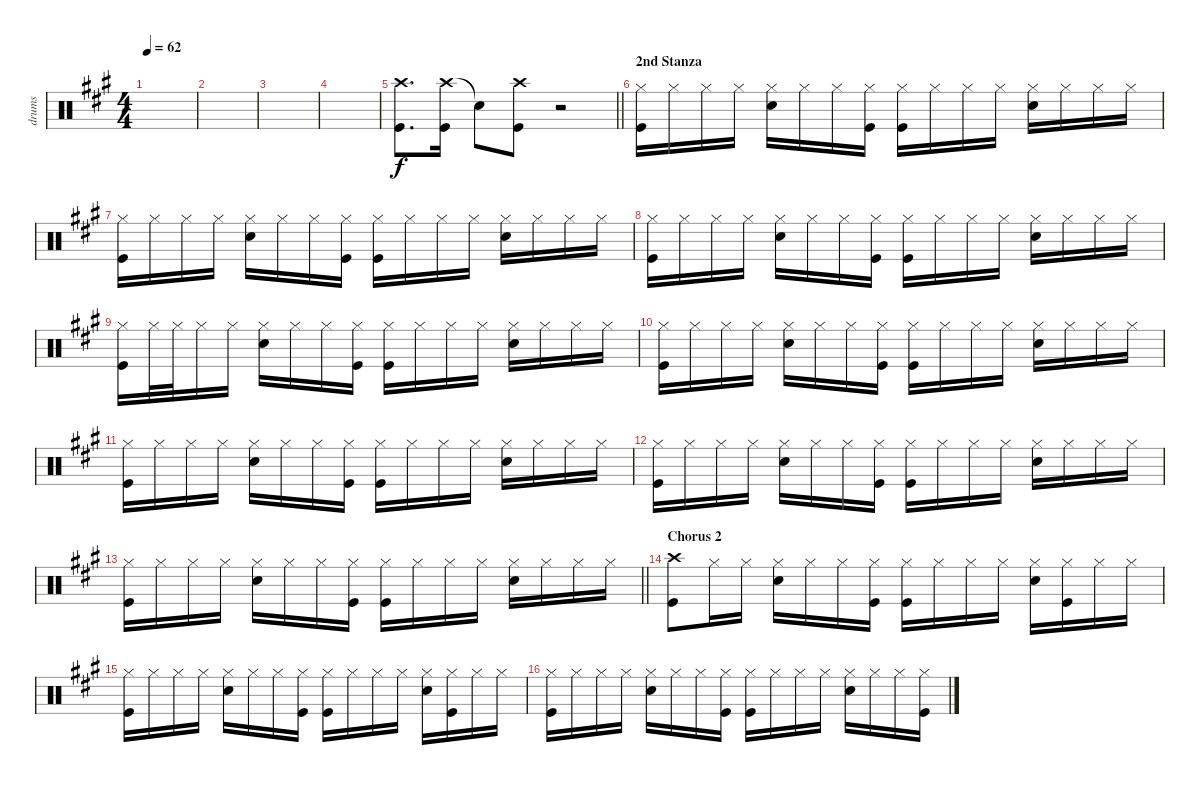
\track ("drums" "drums") {instrument percussion}
\staff {score}
\articulation defaults
\ts (4 4)
\tempo 62
\clef neutral
\ks a
|
|
|
|
\barLineRight lightlight
("Crash high (hit)" "Kick (hit)").8{d} ("Crash high (hit)" "Kick (hit)").16 "Snare (hit)"{t}.8 ("Crash high (hit)" "Kick (hit)").8 r.2 |
\section ("" "2nd Stanza")
("Hi-Hat (closed)" "Kick (hit)").16 "Hi-Hat (closed)".16 "Hi-Hat (closed)".16 "Hi-Hat (closed)".16 ("Electric Snare (hit)" "Hi-Hat (closed)").16 "Hi-Hat (closed)".16 "Hi-Hat (closed)".16 ("Hi-Hat (closed)" "Kick (hit)").16 ("Hi-Hat (closed)" "Kick (hit)").16 "Hi-Hat (closed)".16 "Hi-Hat (closed)".16 "Hi-Hat (closed)".16 ("Electric Snare (hit)" "Hi-Hat (closed)").16 "Hi-Hat (closed)".16 "Hi-Hat (closed)".16 "Hi-Hat (closed)".16 |
("Hi-Hat (closed)" "Kick (hit)").16 "Hi-Hat (closed)".16 "Hi-Hat (closed)".16 "Hi-Hat (closed)".16 ("Electric Snare (hit)" "Hi-Hat (closed)").16 "Hi-Hat (closed)".16 "Hi-Hat (closed)".16 ("Hi-Hat (closed)" "Kick (hit)").16 ("Hi-Hat (closed)" "Kick (hit)").16 "Hi-Hat (closed)".16 "Hi-Hat (closed)".16 "Hi-Hat (closed)".16 ("Electric Snare (hit)" "Hi-Hat (closed)").16 "Hi-Hat (closed)".16 "Hi-Hat (closed)".16 "Hi-Hat (closed)".16 |
("Hi-Hat (closed)" "Kick (hit)").16 "Hi-Hat (closed)".16 "Hi-Hat (closed)".16 "Hi-Hat (closed)".16 ("Electric Snare (hit)" "Hi-Hat (closed)").16 "Hi-Hat (closed)".16 "Hi-Hat (closed)".16 ("Hi-Hat (closed)" "Kick (hit)").16 ("Hi-Hat (closed)" "Kick (hit)").16 "Hi-Hat (closed)".16 "Hi-Hat (closed)".16 "Hi-Hat (closed)".16 ("Electric Snare (hit)" "Hi-Hat (closed)").16 "Hi-Hat (closed)".16 "Hi-Hat (closed)".16 "Hi-Hat (closed)".16 |
("Hi-Hat (closed)" "Kick (hit)").16 "Hi-Hat (closed)".32 "Hi-Hat (closed)".32 "Hi-Hat (closed)".16 "Hi-Hat (closed)".16 ("Electric Snare (hit)" "Hi-Hat (closed)").16 "Hi-Hat (closed)".16 "Hi-Hat (closed)".16 ("Hi-Hat (closed)" "Kick (hit)").16 ("Hi-Hat (closed)" "Kick (hit)").16 "Hi-Hat (closed)".16 "Hi-Hat (closed)".16 "Hi-Hat (closed)".16 ("Electric Snare (hit)" "Hi-Hat (closed)").16 "Hi-Hat (closed)".16 "Hi-Hat (closed)".16 "Hi-Hat (closed)".16 |
("Hi-Hat (closed)" "Kick (hit)").16 "Hi-Hat (closed)".16 "Hi-Hat (closed)".16 "Hi-Hat (closed)".16 ("Electric Snare (hit)" "Hi-Hat (closed)").16 "Hi-Hat (closed)".16 "Hi-Hat (closed)".16 ("Hi-Hat (closed)" "Kick (hit)").16 ("Hi-Hat (closed)" "Kick (hit)").16 "Hi-Hat (closed)".16 "Hi-Hat (closed)".16 "Hi-Hat (closed)".16 ("Electric Snare (hit)" "Hi-Hat (closed)").16 "Hi-Hat (closed)".16 "Hi-Hat (closed)".16 "Hi-Hat (closed)".16 |
("Hi-Hat (closed)" "Kick (hit)").16 "Hi-Hat (closed)".16 "Hi-Hat (closed)".16 "Hi-Hat (closed)".16 ("Electric Snare (hit)" "Hi-Hat (closed)").16 "Hi-Hat (closed)".16 "Hi-Hat (closed)".16 ("Hi-Hat (closed)" "Kick (hit)").16 ("Hi-Hat (closed)" "Kick (hit)").16 "Hi-Hat (closed)".16 "Hi-Hat (closed)".16 "Hi-Hat (closed)".16 ("Electric Snare (hit)" "Hi-Hat (closed)").16 "Hi-Hat (closed)".16 "Hi-Hat (closed)".16 "Hi-Hat (closed)".16 |
("Hi-Hat (closed)" "Kick (hit)").16 "Hi-Hat (closed)".16 "Hi-Hat (closed)".16 "Hi-Hat (closed)".16 ("Electric Snare (hit)" "Hi-Hat (closed)").16 "Hi-Hat (closed)".16 "Hi-Hat (closed)".16 ("Hi-Hat (closed)" "Kick (hit)").16 ("Hi-Hat (closed)" "Kick (hit)").16 "Hi-Hat (closed)".16 "Hi-Hat (closed)".16 "Hi-Hat (closed)".16 ("Electric Snare (hit)" "Hi-Hat (closed)").16 "Hi-Hat (closed)".16 "Hi-Hat (closed)".16 "Hi-Hat (closed)".16 |
\barLineRight lightlight
("Hi-Hat (closed)" "Kick (hit)").16 "Hi-Hat (closed)".16 "Hi-Hat (closed)".16 "Hi-Hat (closed)".16 ("Electric Snare (hit)" "Hi-Hat (closed)").16 "Hi-Hat (closed)".16 "Hi-Hat (closed)".16 ("Hi-Hat (closed)" "Kick (hit)").16 ("Hi-Hat (closed)" "Kick (hit)").16 "Hi-Hat (closed)".16 "Hi-Hat (closed)".16 "Hi-Hat (closed)".16 ("Electric Snare (hit)" "Hi-Hat (closed)").16 "Hi-Hat (closed)".16 "Hi-Hat (closed)".16 "Hi-Hat (closed)".16 |
\section ("" "Chorus 2")
("Crash high (hit)" "Kick (hit)").8 "Hi-Hat (closed)".16 "Hi-Hat (closed)".16 ("Electric Snare (hit)" "Hi-Hat (closed)").16 "Hi-Hat (closed)".16 "Hi-Hat (closed)".16 ("Hi-Hat (closed)" "Kick (hit)").16 ("Hi-Hat (closed)" "Kick (hit)").16 "Hi-Hat (closed)".16 "Hi-Hat (closed)".16 "Hi-Hat (closed)".16 ("Electric Snare (hit)" "Hi-Hat (closed)").16 ("Hi-Hat (closed)" "Kick (hit)").16 "Hi-Hat (closed)".16 "Hi-Hat (closed)".16 |
("Hi-Hat (closed)" "Kick (hit)").16 "Hi-Hat (closed)".16 "Hi-Hat (closed)".16 "Hi-Hat (closed)".16 ("Electric Snare (hit)" "Hi-Hat (closed)").16 "Hi-Hat (closed)".16 "Hi-Hat (closed)".16 ("Hi-Hat (closed)" "Kick (hit)").16 ("Hi-Hat (closed)" "Kick (hit)").16 "Hi-Hat (closed)".16 "Hi-Hat (closed)".16 "Hi-Hat (closed)".16 ("Electric Snare (hit)" "Hi-Hat (closed)").16 ("Hi-Hat (closed)" "Kick (hit)").16 "Hi-Hat (closed)".16 "Hi-Hat (closed)".16 |
("Hi-Hat (closed)" "Kick (hit)").16 "Hi-Hat (closed)".16 "Hi-Hat (closed)".16 "Hi-Hat (closed)".16 ("Electric Snare (hit)" "Hi-Hat (closed)").16 "Hi-Hat (closed)".16 "Hi-Hat (closed)".16 ("Hi-Hat (closed)" "Kick (hit)").16 ("Hi-Hat (closed)" "Kick (hit)").16 "Hi-Hat (closed)".16 "Hi-Hat (closed)".16 "Hi-Hat (closed)".16 ("Electric Snare (hit)" "Hi-Hat (closed)").16 "Hi-Hat (closed)".16 "Hi-Hat (closed)".16 ("Hi-Hat (closed)" "Kick (hit)").16
